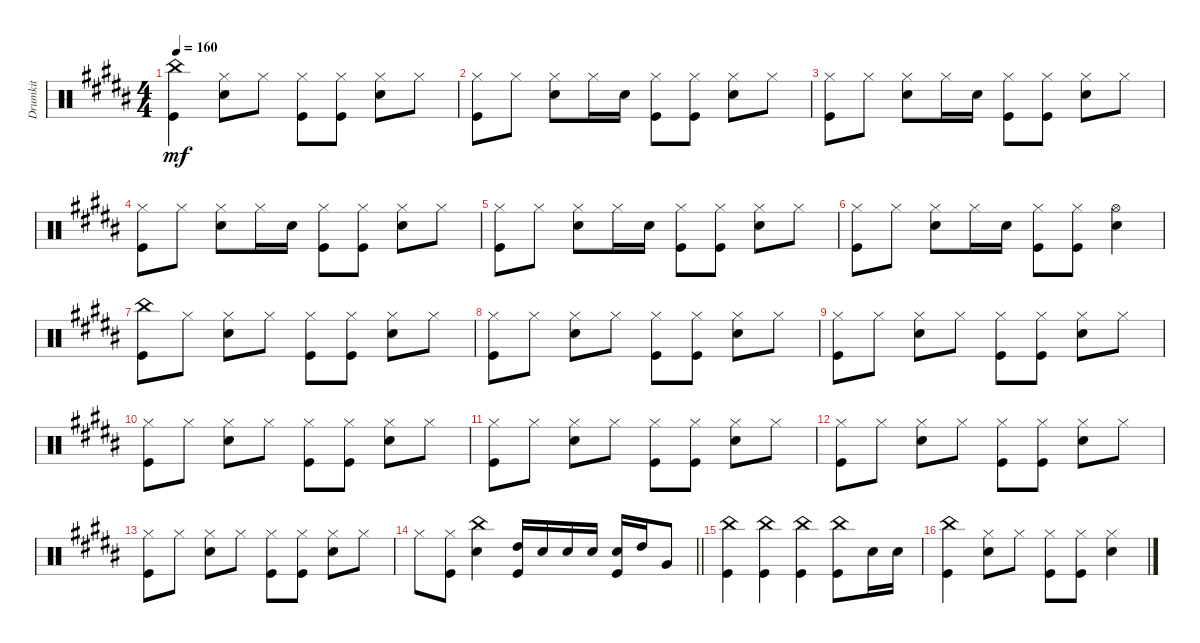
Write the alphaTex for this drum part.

\track ("Drumkit" "Drumkit") {instrument percussion}
\staff {score}
\articulation defaults
\ts (4 4)
\tempo 160
\clef neutral
\ks b
("Kick (hit)" "China (hit)").4{dy mf} ("Hi-Hat (closed)" "Snare (hit) 2").8 "Hi-Hat (closed)".8 ("Hi-Hat (closed)" "Kick (hit)").8 ("Kick (hit)" "Hi-Hat (closed)").8 ("Hi-Hat (closed)" "Snare (hit) 2").8 "Hi-Hat (closed)".8 |
("Hi-Hat (closed)" "Kick (hit)").8 "Hi-Hat (closed)".8 ("Hi-Hat (closed)" "Snare (hit) 2").8 "Hi-Hat (closed)".16 "Snare (hit) 2".16 ("Hi-Hat (closed)" "Kick (hit)").8 ("Kick (hit)" "Hi-Hat (closed)").8 ("Hi-Hat (closed)" "Snare (hit) 2").8 "Hi-Hat (closed)".8 |
("Hi-Hat (closed)" "Kick (hit)").8 "Hi-Hat (closed)".8 ("Hi-Hat (closed)" "Snare (hit) 2").8 "Hi-Hat (closed)".16 "Snare (hit) 2".16 ("Hi-Hat (closed)" "Kick (hit)").8 ("Kick (hit)" "Hi-Hat (closed)").8 ("Hi-Hat (closed)" "Snare (hit) 2").8 "Hi-Hat (closed)".8 |
("Hi-Hat (closed)" "Kick (hit)").8 "Hi-Hat (closed)".8 ("Hi-Hat (closed)" "Snare (hit) 2").8 "Hi-Hat (closed)".16 "Snare (hit) 2".16 ("Hi-Hat (closed)" "Kick (hit)").8 ("Kick (hit)" "Hi-Hat (closed)").8 ("Hi-Hat (closed)" "Snare (hit) 2").8 "Hi-Hat (closed)".8 |
("Hi-Hat (closed)" "Kick (hit)").8 "Hi-Hat (closed)".8 ("Hi-Hat (closed)" "Snare (hit) 2").8 "Hi-Hat (closed)".16 "Snare (hit) 2".16 ("Hi-Hat (closed)" "Kick (hit)").8 ("Kick (hit)" "Hi-Hat (closed)").8 ("Hi-Hat (closed)" "Snare (hit) 2").8 "Hi-Hat (closed)".8 |
("Kick (hit)" "Hi-Hat (closed)").8 "Hi-Hat (closed)".8 ("Hi-Hat (closed)" "Snare (hit) 2").8 "Hi-Hat (closed)".16 "Snare (hit) 2".16 ("Hi-Hat (closed)" "Kick (hit)").8 ("Hi-Hat (closed)" "Kick (hit)").8 ("Snare (hit) 2" "Hi-Hat (open)").4 |
("China (hit)" "Kick (hit)").8 "Hi-Hat (closed)".8 ("Hi-Hat (closed)" "Snare (hit) 2").8 "Hi-Hat (closed)".8 ("Hi-Hat (closed)" "Kick (hit)").8 ("Hi-Hat (closed)" "Kick (hit)").8 ("Hi-Hat (closed)" "Snare (hit) 2").8 "Hi-Hat (closed)".8 |
("Kick (hit)" "Hi-Hat (closed)").8 "Hi-Hat (closed)".8 ("Hi-Hat (closed)" "Snare (hit) 2").8 "Hi-Hat (closed)".8 ("Hi-Hat (closed)" "Kick (hit)").8 ("Hi-Hat (closed)" "Kick (hit)").8 ("Snare (hit) 2" "Hi-Hat (closed)").8 "Hi-Hat (closed)".8 |
("Kick (hit)" "Hi-Hat (closed)").8 "Hi-Hat (closed)".8 ("Hi-Hat (closed)" "Snare (hit) 2").8 "Hi-Hat (closed)".8 ("Hi-Hat (closed)" "Kick (hit)").8 ("Hi-Hat (closed)" "Kick (hit)").8 ("Snare (hit) 2" "Hi-Hat (closed)").8 "Hi-Hat (closed)".8 |
("Kick (hit)" "Hi-Hat (closed)").8 "Hi-Hat (closed)".8 ("Hi-Hat (closed)" "Snare (hit) 2").8 "Hi-Hat (closed)".8 ("Hi-Hat (closed)" "Kick (hit)").8 ("Hi-Hat (closed)" "Kick (hit)").8 ("Snare (hit) 2" "Hi-Hat (closed)").8 "Hi-Hat (closed)".8 |
("Kick (hit)" "Hi-Hat (closed)").8 "Hi-Hat (closed)".8 ("Hi-Hat (closed)" "Snare (hit) 2").8 "Hi-Hat (closed)".8 ("Hi-Hat (closed)" "Kick (hit)").8 ("Hi-Hat (closed)" "Kick (hit)").8 ("Snare (hit) 2" "Hi-Hat (closed)").8 "Hi-Hat (closed)".8 |
("Kick (hit)" "Hi-Hat (closed)").8 "Hi-Hat (closed)".8 ("Hi-Hat (closed)" "Snare (hit) 2").8 "Hi-Hat (closed)".8 ("Hi-Hat (closed)" "Kick (hit)").8 ("Hi-Hat (closed)" "Kick (hit)").8 ("Snare (hit) 2" "Hi-Hat (closed)").8 "Hi-Hat (closed)".8 |
("Kick (hit)" "Hi-Hat (closed)").8 "Hi-Hat (closed)".8 ("Hi-Hat (closed)" "Snare (hit) 2").8 "Hi-Hat (closed)".8 ("Hi-Hat (closed)" "Kick (hit)").8 ("Hi-Hat (closed)" "Kick (hit)").8 ("Snare (hit) 2" "Hi-Hat (closed)").8 "Hi-Hat (closed)".8 |
\barLineRight lightlight "Hi-Hat (closed)".8
("Hi-Hat (closed)" "Kick (hit)").8 ("Snare (hit) 2" "China (hit)").4 ("High Tom (hit)" "Kick (hit)").16 "Snare (hit) 2".16 "Snare (hit) 2".16 "Snare (hit) 2".16 ("Snare (hit) 2" "Kick (hit)").16 "High Tom (hit)".16 "Very Low Tom (hit)".8 |
\section ("" "")
("Kick (hit)" "China (hit)").4 ("Kick (hit)" "China (hit)").4 ("Kick (hit)" "China (hit)").4 ("China (hit)" "Kick (hit)").8 "Snare (hit) 2".16 "Snare (hit) 2".16 |
("Kick (hit)" "China (hit)").4 ("Hi-Hat (closed)" "Snare (hit) 2").8 "Hi-Hat (closed)".8 ("Hi-Hat (closed)" "Kick (hit)").8 ("Kick (hit)" "Hi-Hat (closed)").8 ("Hi-Hat (closed)" "Snare (hit) 2").4
